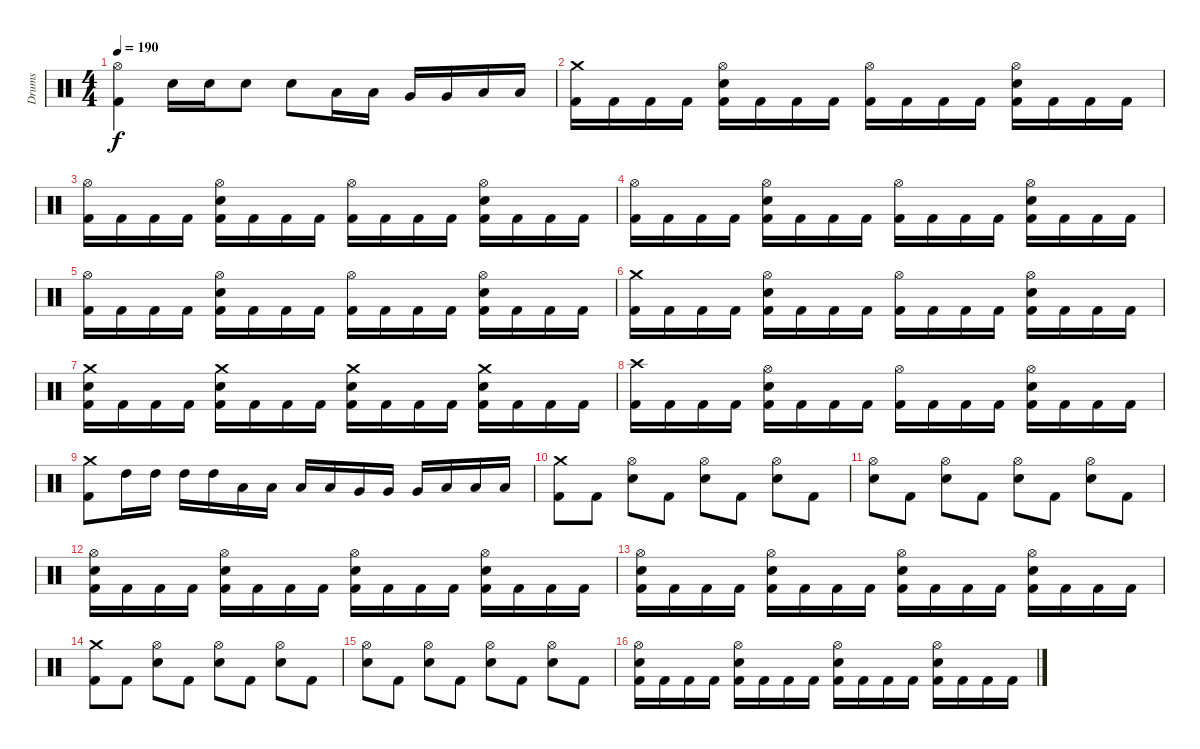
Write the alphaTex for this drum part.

\track ("Drums" "Drums") {instrument percussion}
\staff {score}
\articulation defaults
\ts (4 4)
\tempo 190
\clef neutral
\ks c
("Hi-Hat (open)" "Kick (hit) 2").4{dy f} "Electric Snare (hit)".16 "Electric Snare (hit)".16 "Electric Snare (hit)".8 "Electric Snare (hit)".8 "Low Tom (hit)".16 "Low Tom (hit)".16 "Very Low Tom (hit)".16 "Very Low Tom (hit)".16 "Low Floor Tom (hit)".16 "Low Floor Tom (hit)".16 |
("Crash medium (hit)" "Kick (hit) 2").16 "Kick (hit) 2".16 "Kick (hit) 2".16 "Kick (hit) 2".16 ("Hi-Hat (open)" "Electric Snare (hit)" "Kick (hit) 2").16 "Kick (hit) 2".16 "Kick (hit) 2".16 "Kick (hit) 2".16 ("Hi-Hat (open)" "Kick (hit) 2").16 "Kick (hit) 2".16 "Kick (hit) 2".16 "Kick (hit) 2".16 ("Hi-Hat (open)" "Electric Snare (hit)" "Kick (hit) 2").16 "Kick (hit) 2".16 "Kick (hit) 2".16 "Kick (hit) 2".16 |
("Hi-Hat (open)" "Kick (hit) 2").16 "Kick (hit) 2".16 "Kick (hit) 2".16 "Kick (hit) 2".16 ("Hi-Hat (open)" "Electric Snare (hit)" "Kick (hit) 2").16 "Kick (hit) 2".16 "Kick (hit) 2".16 "Kick (hit) 2".16 ("Hi-Hat (open)" "Kick (hit) 2").16 "Kick (hit) 2".16 "Kick (hit) 2".16 "Kick (hit) 2".16 ("Hi-Hat (open)" "Electric Snare (hit)" "Kick (hit) 2").16 "Kick (hit) 2".16 "Kick (hit) 2".16 "Kick (hit) 2".16 |
("Hi-Hat (open)" "Kick (hit) 2").16 "Kick (hit) 2".16 "Kick (hit) 2".16 "Kick (hit) 2".16 ("Hi-Hat (open)" "Electric Snare (hit)" "Kick (hit) 2").16 "Kick (hit) 2".16 "Kick (hit) 2".16 "Kick (hit) 2".16 ("Hi-Hat (open)" "Kick (hit) 2").16 "Kick (hit) 2".16 "Kick (hit) 2".16 "Kick (hit) 2".16 ("Hi-Hat (open)" "Electric Snare (hit)" "Kick (hit) 2").16 "Kick (hit) 2".16 "Kick (hit) 2".16 "Kick (hit) 2".16 |
("Hi-Hat (open)" "Kick (hit) 2").16 "Kick (hit) 2".16 "Kick (hit) 2".16 "Kick (hit) 2".16 ("Hi-Hat (open)" "Electric Snare (hit)" "Kick (hit) 2").16 "Kick (hit) 2".16 "Kick (hit) 2".16 "Kick (hit) 2".16 ("Hi-Hat (open)" "Kick (hit) 2").16 "Kick (hit) 2".16 "Kick (hit) 2".16 "Kick (hit) 2".16 ("Hi-Hat (open)" "Electric Snare (hit)" "Kick (hit) 2").16 "Kick (hit) 2".16 "Kick (hit) 2".16 "Kick (hit) 2".16 |
("Crash medium (hit)" "Kick (hit) 2").16 "Kick (hit) 2".16 "Kick (hit) 2".16 "Kick (hit) 2".16 ("Hi-Hat (open)" "Electric Snare (hit)" "Kick (hit) 2").16 "Kick (hit) 2".16 "Kick (hit) 2".16 "Kick (hit) 2".16 ("Hi-Hat (open)" "Kick (hit) 2").16 "Kick (hit) 2".16 "Kick (hit) 2".16 "Kick (hit) 2".16 ("Hi-Hat (open)" "Electric Snare (hit)" "Kick (hit) 2").16 "Kick (hit) 2".16 "Kick (hit) 2".16 "Kick (hit) 2".16 |
("Crash medium (hit)" "Electric Snare (hit)" "Kick (hit) 2").16 "Kick (hit) 2".16 "Kick (hit) 2".16 "Kick (hit) 2".16 ("Crash medium (hit)" "Electric Snare (hit)" "Kick (hit) 2").16 "Kick (hit) 2".16 "Kick (hit) 2".16 "Kick (hit) 2".16 ("Crash medium (hit)" "Electric Snare (hit)" "Kick (hit) 2").16 "Kick (hit) 2".16 "Kick (hit) 2".16 "Kick (hit) 2".16 ("Crash medium (hit)" "Electric Snare (hit)" "Kick (hit) 2").16 "Kick (hit) 2".16 "Kick (hit) 2".16 "Kick (hit) 2".16 |
("Crash high (hit)" "Kick (hit) 2").16 "Kick (hit) 2".16 "Kick (hit) 2".16 "Kick (hit) 2".16 ("Hi-Hat (open)" "Electric Snare (hit)" "Kick (hit) 2").16 "Kick (hit) 2".16 "Kick (hit) 2".16 "Kick (hit) 2".16 ("Hi-Hat (open)" "Kick (hit) 2").16 "Kick (hit) 2".16 "Kick (hit) 2".16 "Kick (hit) 2".16 ("Hi-Hat (open)" "Electric Snare (hit)" "Kick (hit) 2").16 "Kick (hit) 2".16 "Kick (hit) 2".16 "Kick (hit) 2".16 |
("Crash medium (hit)" "Kick (hit) 2").8 "High Tom (hit)".16 "High Tom (hit)".16 "High Tom (hit)".16 "High Tom (hit)".16 "Low Tom (hit)".16 "Low Tom (hit)".16 "Low Tom (hit)".16 "Low Tom (hit)".16 "Very Low Tom (hit)".16 "Very Low Tom (hit)".16 "Very Low Tom (hit)".16 "Low Floor Tom (hit)".16 "Low Floor Tom (hit)".16 "Low Floor Tom (hit)".16 |
("Crash medium (hit)" "Kick (hit) 2").8 "Kick (hit) 2".8 ("Hi-Hat (open)" "Electric Snare (hit)").8 "Kick (hit) 2".8 ("Hi-Hat (open)" "Electric Snare (hit)").8 "Kick (hit) 2".8 ("Hi-Hat (open)" "Electric Snare (hit)").8 "Kick (hit) 2".8 |
("Hi-Hat (open)" "Electric Snare (hit)").8 "Kick (hit) 2".8 ("Hi-Hat (open)" "Electric Snare (hit)").8 "Kick (hit) 2".8 ("Hi-Hat (open)" "Electric Snare (hit)").8 "Kick (hit) 2".8 ("Hi-Hat (open)" "Electric Snare (hit)").8 "Kick (hit) 2".8 |
("Hi-Hat (open)" "Electric Snare (hit)" "Kick (hit) 2").16 "Kick (hit) 2".16 "Kick (hit) 2".16 "Kick (hit) 2".16 ("Hi-Hat (open)" "Electric Snare (hit)" "Kick (hit) 2").16 "Kick (hit) 2".16 "Kick (hit) 2".16 "Kick (hit) 2".16 ("Hi-Hat (open)" "Electric Snare (hit)" "Kick (hit) 2").16 "Kick (hit) 2".16 "Kick (hit) 2".16 "Kick (hit) 2".16 ("Hi-Hat (open)" "Electric Snare (hit)" "Kick (hit) 2").16 "Kick (hit) 2".16 "Kick (hit) 2".16 "Kick (hit) 2".16 |
("Hi-Hat (open)" "Electric Snare (hit)" "Kick (hit) 2").16 "Kick (hit) 2".16 "Kick (hit) 2".16 "Kick (hit) 2".16 ("Hi-Hat (open)" "Electric Snare (hit)" "Kick (hit) 2").16 "Kick (hit) 2".16 "Kick (hit) 2".16 "Kick (hit) 2".16 ("Hi-Hat (open)" "Electric Snare (hit)" "Kick (hit) 2").16 "Kick (hit) 2".16 "Kick (hit) 2".16 "Kick (hit) 2".16 ("Hi-Hat (open)" "Electric Snare (hit)" "Kick (hit) 2").16 "Kick (hit) 2".16 "Kick (hit) 2".16 "Kick (hit) 2".16 |
("Crash medium (hit)" "Kick (hit) 2").8 "Kick (hit) 2".8 ("Hi-Hat (open)" "Electric Snare (hit)").8 "Kick (hit) 2".8 ("Hi-Hat (open)" "Electric Snare (hit)").8 "Kick (hit) 2".8 ("Hi-Hat (open)" "Electric Snare (hit)").8 "Kick (hit) 2".8 |
("Hi-Hat (open)" "Electric Snare (hit)").8 "Kick (hit) 2".8 ("Hi-Hat (open)" "Electric Snare (hit)").8 "Kick (hit) 2".8 ("Hi-Hat (open)" "Electric Snare (hit)").8 "Kick (hit) 2".8 ("Hi-Hat (open)" "Electric Snare (hit)").8 "Kick (hit) 2".8 |
("Hi-Hat (open)" "Electric Snare (hit)" "Kick (hit) 2").16 "Kick (hit) 2".16 "Kick (hit) 2".16 "Kick (hit) 2".16 ("Hi-Hat (open)" "Electric Snare (hit)" "Kick (hit) 2").16 "Kick (hit) 2".16 "Kick (hit) 2".16 "Kick (hit) 2".16 ("Hi-Hat (open)" "Electric Snare (hit)" "Kick (hit) 2").16 "Kick (hit) 2".16 "Kick (hit) 2".16 "Kick (hit) 2".16 ("Hi-Hat (open)" "Electric Snare (hit)" "Kick (hit) 2").16 "Kick (hit) 2".16 "Kick (hit) 2".16 "Kick (hit) 2".16
